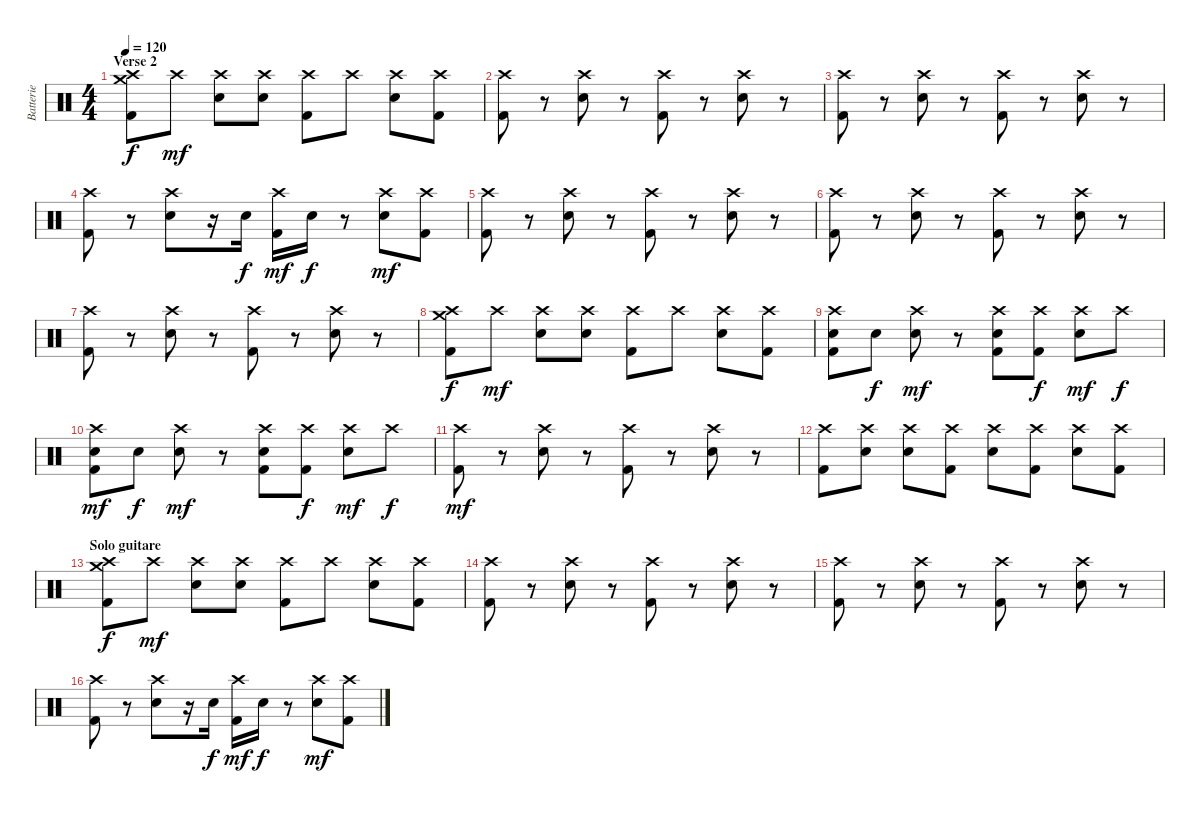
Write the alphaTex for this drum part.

\track ("Batterie" "Batterie") {instrument percussion}
\staff {score}
\articulation defaults
\ts (4 4)
\section ("" "Verse 2")
\tempo 120
\clef neutral
\ks c
("Crash high (hit)" "Crash medium (hit)" "Kick (hit) 2").8{dy f} "Crash high (hit)".8{dy mf} ("Crash high (hit)" "Electric Snare (hit)").8 ("Crash high (hit)" "Electric Snare (hit)").8 ("Crash high (hit)" "Kick (hit) 2").8 "Crash high (hit)".8 ("Crash high (hit)" "Electric Snare (hit)").8 ("Crash high (hit)" "Kick (hit) 2").8 |
("Crash high (hit)" "Kick (hit) 2").8 r.8 ("Crash high (hit)" "Electric Snare (hit)").8 r.8 ("Crash high (hit)" "Kick (hit) 2").8 r.8 ("Crash high (hit)" "Electric Snare (hit)").8 r.8 |
("Crash high (hit)" "Kick (hit) 2").8 r.8 ("Crash high (hit)" "Electric Snare (hit)").8 r.8 ("Crash high (hit)" "Kick (hit) 2").8 r.8 ("Crash high (hit)" "Electric Snare (hit)").8 r.8 |
("Crash high (hit)" "Kick (hit) 2").8 r.8 ("Crash high (hit)" "Electric Snare (hit)").8 r.16 "Electric Snare (hit)".16{dy f} ("Crash high (hit)" "Kick (hit) 2").16{dy mf} "Electric Snare (hit)".16{dy f} r.8 ("Crash high (hit)" "Electric Snare (hit)").8{dy mf} ("Crash high (hit)" "Kick (hit) 2").8 |
("Crash high (hit)" "Kick (hit) 2").8 r.8 ("Crash high (hit)" "Electric Snare (hit)").8 r.8 ("Crash high (hit)" "Kick (hit) 2").8 r.8 ("Crash high (hit)" "Electric Snare (hit)").8 r.8 |
("Crash high (hit)" "Kick (hit) 2").8 r.8 ("Crash high (hit)" "Electric Snare (hit)").8 r.8 ("Crash high (hit)" "Kick (hit) 2").8 r.8 ("Crash high (hit)" "Electric Snare (hit)").8 r.8 |
("Crash high (hit)" "Kick (hit) 2").8 r.8 ("Crash high (hit)" "Electric Snare (hit)").8 r.8 ("Crash high (hit)" "Kick (hit) 2").8 r.8 ("Crash high (hit)" "Electric Snare (hit)").8 r.8 |
("Crash high (hit)" "Crash medium (hit)" "Kick (hit) 2").8{dy f} "Crash high (hit)".8{dy mf} ("Crash high (hit)" "Electric Snare (hit)").8 ("Crash high (hit)" "Electric Snare (hit)").8 ("Crash high (hit)" "Kick (hit) 2").8 "Crash high (hit)".8 ("Crash high (hit)" "Electric Snare (hit)").8 ("Crash high (hit)" "Kick (hit) 2").8 |
("Crash high (hit)" "Electric Snare (hit)" "Kick (hit) 2").8 "Electric Snare (hit)".8{dy f} ("Crash high (hit)" "Electric Snare (hit)").8{dy mf} r.8 ("Crash high (hit)" "Electric Snare (hit)" "Kick (hit) 2").8 ("Crash high (hit)" "Kick (hit) 2").8{dy f} ("Crash high (hit)" "Electric Snare (hit)").8{dy mf} "Crash high (hit)".8{dy f} |
("Crash high (hit)" "Electric Snare (hit)" "Kick (hit) 2").8{dy mf} "Electric Snare (hit)".8{dy f} ("Crash high (hit)" "Electric Snare (hit)").8{dy mf} r.8 ("Crash high (hit)" "Electric Snare (hit)" "Kick (hit) 2").8 ("Crash high (hit)" "Kick (hit) 2").8{dy f} ("Crash high (hit)" "Electric Snare (hit)").8{dy mf} "Crash high (hit)".8{dy f} |
("Crash high (hit)" "Kick (hit) 2").8{dy mf} r.8 ("Crash high (hit)" "Electric Snare (hit)").8 r.8 ("Crash high (hit)" "Kick (hit) 2").8 r.8 ("Crash high (hit)" "Electric Snare (hit)").8 r.8 |
("Crash high (hit)" "Kick (hit) 2").8 ("Crash high (hit)" "Electric Snare (hit)").8 ("Crash high (hit)" "Electric Snare (hit)").8 ("Crash high (hit)" "Kick (hit) 2").8 ("Crash high (hit)" "Electric Snare (hit)").8 ("Crash high (hit)" "Kick (hit) 2").8 ("Crash high (hit)" "Electric Snare (hit)").8 ("Crash high (hit)" "Kick (hit) 2").8 |
\section ("" "Solo guitare")
("Crash high (hit)" "Crash medium (hit)" "Kick (hit) 2").8{dy f} "Crash high (hit)".8{dy mf} ("Crash high (hit)" "Electric Snare (hit)").8 ("Crash high (hit)" "Electric Snare (hit)").8 ("Crash high (hit)" "Kick (hit) 2").8 "Crash high (hit)".8 ("Crash high (hit)" "Electric Snare (hit)").8 ("Crash high (hit)" "Kick (hit) 2").8 |
("Crash high (hit)" "Kick (hit) 2").8 r.8 ("Crash high (hit)" "Electric Snare (hit)").8 r.8 ("Crash high (hit)" "Kick (hit) 2").8 r.8 ("Crash high (hit)" "Electric Snare (hit)").8 r.8 |
("Crash high (hit)" "Kick (hit) 2").8 r.8 ("Crash high (hit)" "Electric Snare (hit)").8 r.8 ("Crash high (hit)" "Kick (hit) 2").8 r.8 ("Crash high (hit)" "Electric Snare (hit)").8 r.8 |
("Crash high (hit)" "Kick (hit) 2").8 r.8 ("Crash high (hit)" "Electric Snare (hit)").8 r.16 "Electric Snare (hit)".16{dy f} ("Crash high (hit)" "Kick (hit) 2").16{dy mf} "Electric Snare (hit)".16{dy f} r.8 ("Crash high (hit)" "Electric Snare (hit)").8{dy mf} ("Crash high (hit)" "Kick (hit) 2").8
